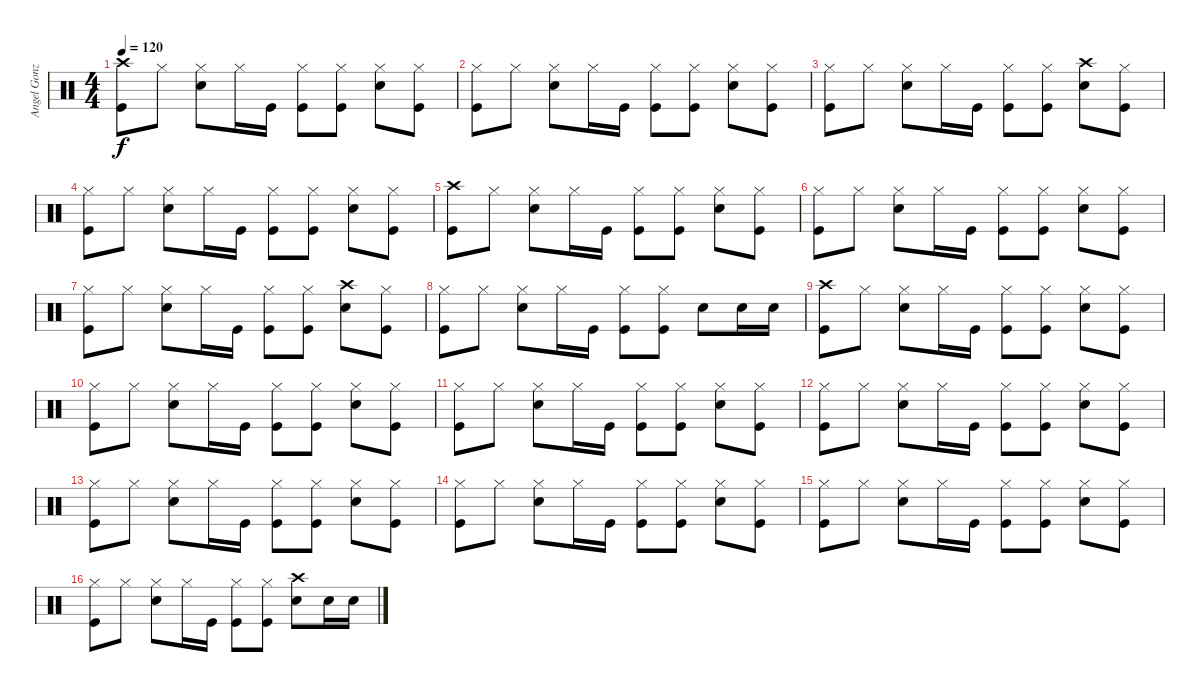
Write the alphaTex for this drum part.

\track ("Angel Gonzalez - Batería" "Angel Gonz") {instrument percussion}
\staff {score}
\articulation defaults
\ts (4 4)
\tempo 120
\clef neutral
\ks c
("Crash high (hit)" "Kick (hit)").8{dy f} "Hi-Hat (closed)".8 ("Hi-Hat (closed)" "Electric Snare (hit)").8 "Hi-Hat (closed)".16 "Kick (hit)".16 ("Hi-Hat (closed)" "Kick (hit)").8 ("Hi-Hat (closed)" "Kick (hit)").8 ("Hi-Hat (closed)" "Electric Snare (hit)").8 ("Hi-Hat (closed)" "Kick (hit)").8 |
("Hi-Hat (closed)" "Kick (hit)").8 "Hi-Hat (closed)".8 ("Hi-Hat (closed)" "Electric Snare (hit)").8 "Hi-Hat (closed)".16 "Kick (hit)".16 ("Hi-Hat (closed)" "Kick (hit)").8 ("Hi-Hat (closed)" "Kick (hit)").8 ("Hi-Hat (closed)" "Electric Snare (hit)").8 ("Hi-Hat (closed)" "Kick (hit)").8 |
("Hi-Hat (closed)" "Kick (hit)").8 "Hi-Hat (closed)".8 ("Hi-Hat (closed)" "Electric Snare (hit)").8 "Hi-Hat (closed)".16 "Kick (hit)".16 ("Hi-Hat (closed)" "Kick (hit)").8 ("Hi-Hat (closed)" "Kick (hit)").8 ("Crash high (hit)" "Electric Snare (hit)").8 ("Hi-Hat (closed)" "Kick (hit)").8 |
("Hi-Hat (closed)" "Kick (hit)").8 "Hi-Hat (closed)".8 ("Hi-Hat (closed)" "Electric Snare (hit)").8 "Hi-Hat (closed)".16 "Kick (hit)".16 ("Hi-Hat (closed)" "Kick (hit)").8 ("Hi-Hat (closed)" "Kick (hit)").8 ("Hi-Hat (closed)" "Electric Snare (hit)").8 ("Hi-Hat (closed)" "Kick (hit)").8 |
("Crash high (hit)" "Kick (hit)").8 "Hi-Hat (closed)".8 ("Hi-Hat (closed)" "Electric Snare (hit)").8 "Hi-Hat (closed)".16 "Kick (hit)".16 ("Hi-Hat (closed)" "Kick (hit)").8 ("Hi-Hat (closed)" "Kick (hit)").8 ("Hi-Hat (closed)" "Electric Snare (hit)").8 ("Hi-Hat (closed)" "Kick (hit)").8 |
("Hi-Hat (closed)" "Kick (hit)").8 "Hi-Hat (closed)".8 ("Hi-Hat (closed)" "Electric Snare (hit)").8 "Hi-Hat (closed)".16 "Kick (hit)".16 ("Hi-Hat (closed)" "Kick (hit)").8 ("Hi-Hat (closed)" "Kick (hit)").8 ("Hi-Hat (closed)" "Electric Snare (hit)").8 ("Hi-Hat (closed)" "Kick (hit)").8 |
("Hi-Hat (closed)" "Kick (hit)").8 "Hi-Hat (closed)".8 ("Hi-Hat (closed)" "Electric Snare (hit)").8 "Hi-Hat (closed)".16 "Kick (hit)".16 ("Hi-Hat (closed)" "Kick (hit)").8 ("Hi-Hat (closed)" "Kick (hit)").8 ("Crash high (hit)" "Electric Snare (hit)").8 ("Hi-Hat (closed)" "Kick (hit)").8 |
("Hi-Hat (closed)" "Kick (hit)").8 "Hi-Hat (closed)".8 ("Hi-Hat (closed)" "Electric Snare (hit)").8 "Hi-Hat (closed)".16 "Kick (hit)".16 ("Hi-Hat (closed)" "Kick (hit)").8 ("Hi-Hat (closed)" "Kick (hit)").8 "Electric Snare (hit)".8 "Electric Snare (hit)".16 "Electric Snare (hit)".16 |
("Crash high (hit)" "Kick (hit)").8 "Hi-Hat (closed)".8 ("Hi-Hat (closed)" "Electric Snare (hit)").8 "Hi-Hat (closed)".16 "Kick (hit)".16 ("Hi-Hat (closed)" "Kick (hit)").8 ("Hi-Hat (closed)" "Kick (hit)").8 ("Hi-Hat (closed)" "Electric Snare (hit)").8 ("Hi-Hat (closed)" "Kick (hit)").8 |
("Hi-Hat (closed)" "Kick (hit)").8 "Hi-Hat (closed)".8 ("Hi-Hat (closed)" "Electric Snare (hit)").8 "Hi-Hat (closed)".16 "Kick (hit)".16 ("Hi-Hat (closed)" "Kick (hit)").8 ("Hi-Hat (closed)" "Kick (hit)").8 ("Hi-Hat (closed)" "Electric Snare (hit)").8 ("Hi-Hat (closed)" "Kick (hit)").8 |
("Hi-Hat (closed)" "Kick (hit)").8 "Hi-Hat (closed)".8 ("Hi-Hat (closed)" "Electric Snare (hit)").8 "Hi-Hat (closed)".16 "Kick (hit)".16 ("Hi-Hat (closed)" "Kick (hit)").8 ("Hi-Hat (closed)" "Kick (hit)").8 ("Hi-Hat (closed)" "Electric Snare (hit)").8 ("Hi-Hat (closed)" "Kick (hit)").8 |
("Hi-Hat (closed)" "Kick (hit)").8 "Hi-Hat (closed)".8 ("Hi-Hat (closed)" "Electric Snare (hit)").8 "Hi-Hat (closed)".16 "Kick (hit)".16 ("Hi-Hat (closed)" "Kick (hit)").8 ("Hi-Hat (closed)" "Kick (hit)").8 ("Hi-Hat (closed)" "Electric Snare (hit)").8 ("Hi-Hat (closed)" "Kick (hit)").8 |
("Hi-Hat (closed)" "Kick (hit)").8 "Hi-Hat (closed)".8 ("Hi-Hat (closed)" "Electric Snare (hit)").8 "Hi-Hat (closed)".16 "Kick (hit)".16 ("Hi-Hat (closed)" "Kick (hit)").8 ("Hi-Hat (closed)" "Kick (hit)").8 ("Hi-Hat (closed)" "Electric Snare (hit)").8 ("Hi-Hat (closed)" "Kick (hit)").8 |
("Hi-Hat (closed)" "Kick (hit)").8 "Hi-Hat (closed)".8 ("Hi-Hat (closed)" "Electric Snare (hit)").8 "Hi-Hat (closed)".16 "Kick (hit)".16 ("Hi-Hat (closed)" "Kick (hit)").8 ("Hi-Hat (closed)" "Kick (hit)").8 ("Hi-Hat (closed)" "Electric Snare (hit)").8 ("Hi-Hat (closed)" "Kick (hit)").8 |
("Hi-Hat (closed)" "Kick (hit)").8 "Hi-Hat (closed)".8 ("Hi-Hat (closed)" "Electric Snare (hit)").8 "Hi-Hat (closed)".16 "Kick (hit)".16 ("Hi-Hat (closed)" "Kick (hit)").8 ("Hi-Hat (closed)" "Kick (hit)").8 ("Hi-Hat (closed)" "Electric Snare (hit)").8 ("Hi-Hat (closed)" "Kick (hit)").8 |
("Hi-Hat (closed)" "Kick (hit)").8 "Hi-Hat (closed)".8 ("Hi-Hat (closed)" "Electric Snare (hit)").8 "Hi-Hat (closed)".16 "Kick (hit)".16 ("Hi-Hat (closed)" "Kick (hit)").8 ("Hi-Hat (closed)" "Kick (hit)").8 ("Crash high (hit)" "Electric Snare (hit)").8 "Electric Snare (hit)".16 "Electric Snare (hit)".16
